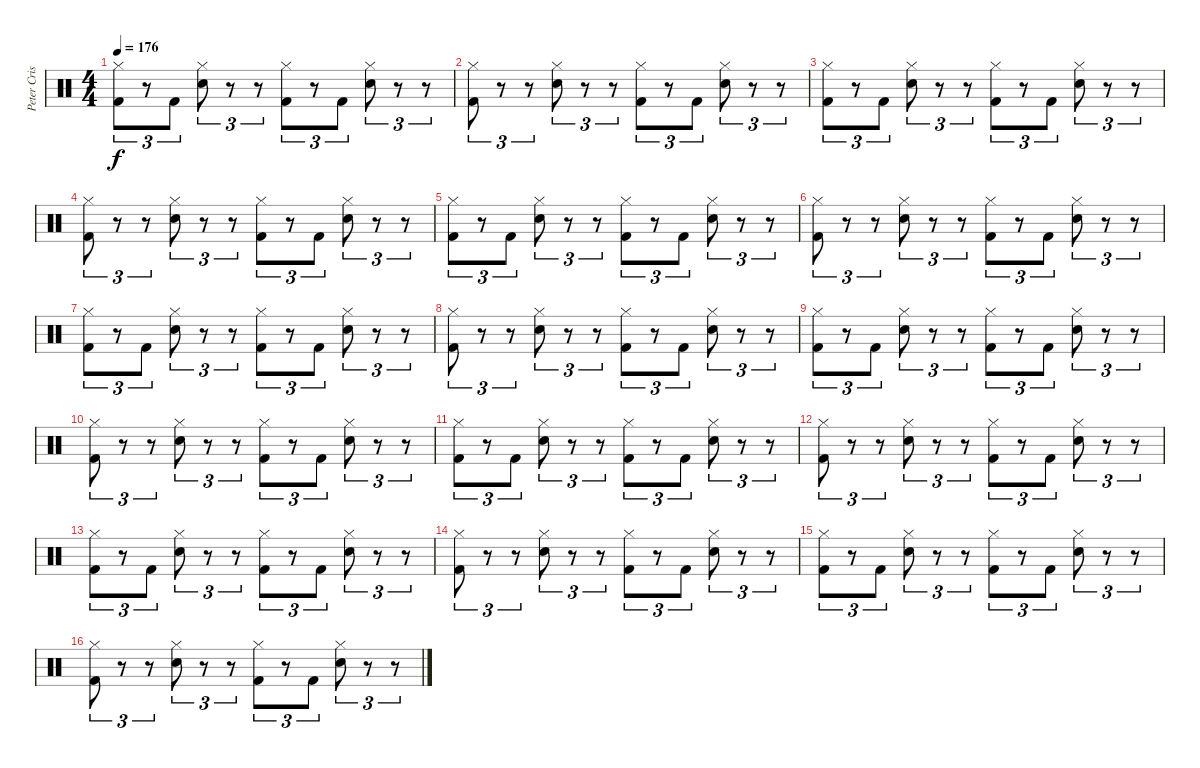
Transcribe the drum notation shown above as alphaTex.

\track ("Peter Criss" "Peter Cris") {instrument percussion}
\staff {score}
\articulation defaults
\ts (4 4)
\tempo 176
\clef neutral
\ks c
("Hi-Hat (closed)" "Kick (hit) 2").8{tu (3 2) dy f} r.8{tu (3 2)} "Kick (hit) 2".8{tu (3 2)} ("Hi-Hat (closed)" "Electric Snare (hit)").8{tu (3 2)} r.8{tu (3 2)} r.8{tu (3 2)} ("Hi-Hat (closed)" "Kick (hit) 2").8{tu (3 2)} r.8{tu (3 2)} "Kick (hit) 2".8{tu (3 2)} ("Hi-Hat (closed)" "Electric Snare (hit)").8{tu (3 2)} r.8{tu (3 2)} r.8{tu (3 2)} |
("Hi-Hat (closed)" "Kick (hit) 2").8{tu (3 2)} r.8{tu (3 2)} r.8{tu (3 2)} ("Hi-Hat (closed)" "Electric Snare (hit)").8{tu (3 2)} r.8{tu (3 2)} r.8{tu (3 2)} ("Hi-Hat (closed)" "Kick (hit) 2").8{tu (3 2)} r.8{tu (3 2)} "Kick (hit) 2".8{tu (3 2)} ("Hi-Hat (closed)" "Electric Snare (hit)").8{tu (3 2)} r.8{tu (3 2)} r.8{tu (3 2)} |
("Hi-Hat (closed)" "Kick (hit) 2").8{tu (3 2)} r.8{tu (3 2)} "Kick (hit) 2".8{tu (3 2)} ("Hi-Hat (closed)" "Electric Snare (hit)").8{tu (3 2)} r.8{tu (3 2)} r.8{tu (3 2)} ("Hi-Hat (closed)" "Kick (hit) 2").8{tu (3 2)} r.8{tu (3 2)} "Kick (hit) 2".8{tu (3 2)} ("Hi-Hat (closed)" "Electric Snare (hit)").8{tu (3 2)} r.8{tu (3 2)} r.8{tu (3 2)} |
("Hi-Hat (closed)" "Kick (hit) 2").8{tu (3 2)} r.8{tu (3 2)} r.8{tu (3 2)} ("Hi-Hat (closed)" "Electric Snare (hit)").8{tu (3 2)} r.8{tu (3 2)} r.8{tu (3 2)} ("Hi-Hat (closed)" "Kick (hit) 2").8{tu (3 2)} r.8{tu (3 2)} "Kick (hit) 2".8{tu (3 2)} ("Hi-Hat (closed)" "Electric Snare (hit)").8{tu (3 2)} r.8{tu (3 2)} r.8{tu (3 2)} |
("Hi-Hat (closed)" "Kick (hit) 2").8{tu (3 2)} r.8{tu (3 2)} "Kick (hit) 2".8{tu (3 2)} ("Hi-Hat (closed)" "Electric Snare (hit)").8{tu (3 2)} r.8{tu (3 2)} r.8{tu (3 2)} ("Hi-Hat (closed)" "Kick (hit) 2").8{tu (3 2)} r.8{tu (3 2)} "Kick (hit) 2".8{tu (3 2)} ("Hi-Hat (closed)" "Electric Snare (hit)").8{tu (3 2)} r.8{tu (3 2)} r.8{tu (3 2)} |
("Hi-Hat (closed)" "Kick (hit) 2").8{tu (3 2)} r.8{tu (3 2)} r.8{tu (3 2)} ("Hi-Hat (closed)" "Electric Snare (hit)").8{tu (3 2)} r.8{tu (3 2)} r.8{tu (3 2)} ("Hi-Hat (closed)" "Kick (hit) 2").8{tu (3 2)} r.8{tu (3 2)} "Kick (hit) 2".8{tu (3 2)} ("Hi-Hat (closed)" "Electric Snare (hit)").8{tu (3 2)} r.8{tu (3 2)} r.8{tu (3 2)} |
("Hi-Hat (closed)" "Kick (hit) 2").8{tu (3 2)} r.8{tu (3 2)} "Kick (hit) 2".8{tu (3 2)} ("Hi-Hat (closed)" "Electric Snare (hit)").8{tu (3 2)} r.8{tu (3 2)} r.8{tu (3 2)} ("Hi-Hat (closed)" "Kick (hit) 2").8{tu (3 2)} r.8{tu (3 2)} "Kick (hit) 2".8{tu (3 2)} ("Hi-Hat (closed)" "Electric Snare (hit)").8{tu (3 2)} r.8{tu (3 2)} r.8{tu (3 2)} |
("Hi-Hat (closed)" "Kick (hit) 2").8{tu (3 2)} r.8{tu (3 2)} r.8{tu (3 2)} ("Hi-Hat (closed)" "Electric Snare (hit)").8{tu (3 2)} r.8{tu (3 2)} r.8{tu (3 2)} ("Hi-Hat (closed)" "Kick (hit) 2").8{tu (3 2)} r.8{tu (3 2)} "Kick (hit) 2".8{tu (3 2)} ("Hi-Hat (closed)" "Electric Snare (hit)").8{tu (3 2)} r.8{tu (3 2)} r.8{tu (3 2)} |
("Hi-Hat (closed)" "Kick (hit) 2").8{tu (3 2)} r.8{tu (3 2)} "Kick (hit) 2".8{tu (3 2)} ("Hi-Hat (closed)" "Electric Snare (hit)").8{tu (3 2)} r.8{tu (3 2)} r.8{tu (3 2)} ("Hi-Hat (closed)" "Kick (hit) 2").8{tu (3 2)} r.8{tu (3 2)} "Kick (hit) 2".8{tu (3 2)} ("Hi-Hat (closed)" "Electric Snare (hit)").8{tu (3 2)} r.8{tu (3 2)} r.8{tu (3 2)} |
("Hi-Hat (closed)" "Kick (hit) 2").8{tu (3 2)} r.8{tu (3 2)} r.8{tu (3 2)} ("Hi-Hat (closed)" "Electric Snare (hit)").8{tu (3 2)} r.8{tu (3 2)} r.8{tu (3 2)} ("Hi-Hat (closed)" "Kick (hit) 2").8{tu (3 2)} r.8{tu (3 2)} "Kick (hit) 2".8{tu (3 2)} ("Hi-Hat (closed)" "Electric Snare (hit)").8{tu (3 2)} r.8{tu (3 2)} r.8{tu (3 2)} |
("Hi-Hat (closed)" "Kick (hit) 2").8{tu (3 2)} r.8{tu (3 2)} "Kick (hit) 2".8{tu (3 2)} ("Hi-Hat (closed)" "Electric Snare (hit)").8{tu (3 2)} r.8{tu (3 2)} r.8{tu (3 2)} ("Hi-Hat (closed)" "Kick (hit) 2").8{tu (3 2)} r.8{tu (3 2)} "Kick (hit) 2".8{tu (3 2)} ("Hi-Hat (closed)" "Electric Snare (hit)").8{tu (3 2)} r.8{tu (3 2)} r.8{tu (3 2)} |
("Hi-Hat (closed)" "Kick (hit) 2").8{tu (3 2)} r.8{tu (3 2)} r.8{tu (3 2)} ("Hi-Hat (closed)" "Electric Snare (hit)").8{tu (3 2)} r.8{tu (3 2)} r.8{tu (3 2)} ("Hi-Hat (closed)" "Kick (hit) 2").8{tu (3 2)} r.8{tu (3 2)} "Kick (hit) 2".8{tu (3 2)} ("Hi-Hat (closed)" "Electric Snare (hit)").8{tu (3 2)} r.8{tu (3 2)} r.8{tu (3 2)} |
("Hi-Hat (closed)" "Kick (hit) 2").8{tu (3 2)} r.8{tu (3 2)} "Kick (hit) 2".8{tu (3 2)} ("Hi-Hat (closed)" "Electric Snare (hit)").8{tu (3 2)} r.8{tu (3 2)} r.8{tu (3 2)} ("Hi-Hat (closed)" "Kick (hit) 2").8{tu (3 2)} r.8{tu (3 2)} "Kick (hit) 2".8{tu (3 2)} ("Hi-Hat (closed)" "Electric Snare (hit)").8{tu (3 2)} r.8{tu (3 2)} r.8{tu (3 2)} |
("Hi-Hat (closed)" "Kick (hit) 2").8{tu (3 2)} r.8{tu (3 2)} r.8{tu (3 2)} ("Hi-Hat (closed)" "Electric Snare (hit)").8{tu (3 2)} r.8{tu (3 2)} r.8{tu (3 2)} ("Hi-Hat (closed)" "Kick (hit) 2").8{tu (3 2)} r.8{tu (3 2)} "Kick (hit) 2".8{tu (3 2)} ("Hi-Hat (closed)" "Electric Snare (hit)").8{tu (3 2)} r.8{tu (3 2)} r.8{tu (3 2)} |
("Hi-Hat (closed)" "Kick (hit) 2").8{tu (3 2)} r.8{tu (3 2)} "Kick (hit) 2".8{tu (3 2)} ("Hi-Hat (closed)" "Electric Snare (hit)").8{tu (3 2)} r.8{tu (3 2)} r.8{tu (3 2)} ("Hi-Hat (closed)" "Kick (hit) 2").8{tu (3 2)} r.8{tu (3 2)} "Kick (hit) 2".8{tu (3 2)} ("Hi-Hat (closed)" "Electric Snare (hit)").8{tu (3 2)} r.8{tu (3 2)} r.8{tu (3 2)} |
("Hi-Hat (closed)" "Kick (hit) 2").8{tu (3 2)} r.8{tu (3 2)} r.8{tu (3 2)} ("Hi-Hat (closed)" "Electric Snare (hit)").8{tu (3 2)} r.8{tu (3 2)} r.8{tu (3 2)} ("Hi-Hat (closed)" "Kick (hit) 2").8{tu (3 2)} r.8{tu (3 2)} "Kick (hit) 2".8{tu (3 2)} ("Hi-Hat (closed)" "Electric Snare (hit)").8{tu (3 2)} r.8{tu (3 2)} r.8{tu (3 2)}
